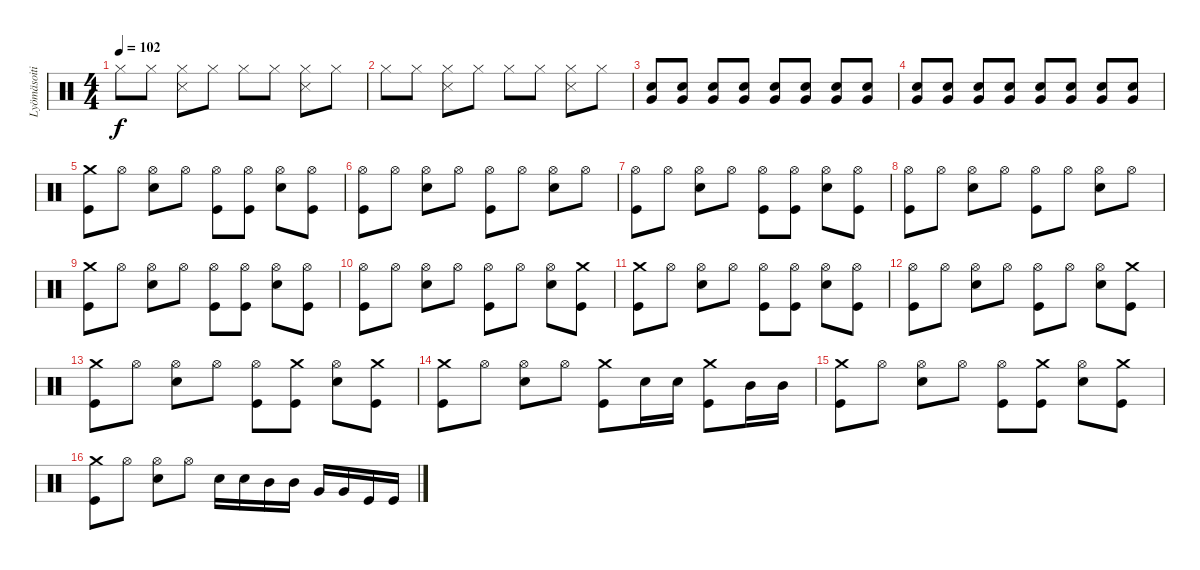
\track ("Lyömäsoitin" "Lyömäsoiti") {instrument percussion}
\staff {score}
\articulation defaults
\ts (4 4)
\tempo 102
\clef neutral
\ks c "Hi-Hat (closed)".8{dy f} "Hi-Hat (closed)".8
("Hi-Hat (closed)" "Snare (side stick) 3").8 "Hi-Hat (closed)".8 "Hi-Hat (closed)".8 "Hi-Hat (closed)".8 ("Hi-Hat (closed)" "Snare (side stick) 3").8 "Hi-Hat (closed)".8 |
"Hi-Hat (closed)".8 "Hi-Hat (closed)".8 ("Hi-Hat (closed)" "Snare (side stick) 3").8 "Hi-Hat (closed)".8 "Hi-Hat (closed)".8 "Hi-Hat (closed)".8 ("Hi-Hat (closed)" "Snare (side stick) 3").8 "Hi-Hat (closed)".8 |
("Very Low Tom (hit)" "Snare (hit) 2").8 ("Very Low Tom (hit)" "Snare (hit) 2").8 ("Very Low Tom (hit)" "Snare (hit) 2").8 ("Very Low Tom (hit)" "Snare (hit) 2").8 ("Very Low Tom (hit)" "Snare (hit) 2").8 ("Very Low Tom (hit)" "Snare (hit) 2").8 ("Very Low Tom (hit)" "Snare (hit) 2").8 ("Very Low Tom (hit)" "Snare (hit) 2").8 |
("Very Low Tom (hit)" "Snare (hit) 2").8 ("Very Low Tom (hit)" "Snare (hit) 2").8 ("Very Low Tom (hit)" "Snare (hit) 2").8 ("Very Low Tom (hit)" "Snare (hit) 2").8 ("Very Low Tom (hit)" "Snare (hit) 2").8 ("Very Low Tom (hit)" "Snare (hit) 2").8 ("Very Low Tom (hit)" "Snare (hit) 2").8 ("Very Low Tom (hit)" "Snare (hit) 2").8 |
("Crash medium (hit)" "Kick (hit)").8 "Hi-Hat (open)".8 ("Hi-Hat (open)" "Snare (hit) 2").8 "Hi-Hat (open)".8 ("Hi-Hat (open)" "Kick (hit)").8 ("Hi-Hat (open)" "Kick (hit)").8 ("Hi-Hat (open)" "Snare (hit) 2").8 ("Hi-Hat (open)" "Kick (hit)").8 |
("Hi-Hat (open)" "Kick (hit)").8 "Hi-Hat (open)".8 ("Hi-Hat (open)" "Snare (hit) 2").8 "Hi-Hat (open)".8 ("Hi-Hat (open)" "Kick (hit)").8 "Hi-Hat (open)".8 ("Hi-Hat (open)" "Snare (hit) 2").8 "Hi-Hat (open)".8 |
("Hi-Hat (open)" "Kick (hit)").8 "Hi-Hat (open)".8 ("Hi-Hat (open)" "Snare (hit) 2").8 "Hi-Hat (open)".8 ("Hi-Hat (open)" "Kick (hit)").8 ("Hi-Hat (open)" "Kick (hit)").8 ("Hi-Hat (open)" "Snare (hit) 2").8 ("Hi-Hat (open)" "Kick (hit)").8 |
("Hi-Hat (open)" "Kick (hit)").8 "Hi-Hat (open)".8 ("Hi-Hat (open)" "Snare (hit) 2").8 "Hi-Hat (open)".8 ("Hi-Hat (open)" "Kick (hit)").8 "Hi-Hat (open)".8 ("Hi-Hat (open)" "Snare (hit) 2").8 "Hi-Hat (open)".8 |
("Crash medium (hit)" "Kick (hit)").8 "Hi-Hat (open)".8 ("Hi-Hat (open)" "Snare (hit) 2").8 "Hi-Hat (open)".8 ("Hi-Hat (open)" "Kick (hit)").8 ("Hi-Hat (open)" "Kick (hit)").8 ("Hi-Hat (open)" "Snare (hit) 2").8 ("Hi-Hat (open)" "Kick (hit)").8 |
("Hi-Hat (open)" "Kick (hit)").8 "Hi-Hat (open)".8 ("Hi-Hat (open)" "Snare (hit) 2").8 "Hi-Hat (open)".8 ("Hi-Hat (open)" "Kick (hit)").8 "Hi-Hat (open)".8 ("Hi-Hat (open)" "Snare (hit) 2").8 ("Crash medium (hit)" "Kick (hit)").8 |
("Crash medium (hit)" "Kick (hit)").8 "Hi-Hat (open)".8 ("Hi-Hat (open)" "Snare (hit) 2").8 "Hi-Hat (open)".8 ("Hi-Hat (open)" "Kick (hit)").8 ("Hi-Hat (open)" "Kick (hit)").8 ("Hi-Hat (open)" "Snare (hit) 2").8 ("Hi-Hat (open)" "Kick (hit)").8 |
("Hi-Hat (open)" "Kick (hit)").8 "Hi-Hat (open)".8 ("Hi-Hat (open)" "Snare (hit) 2").8 "Hi-Hat (open)".8 ("Hi-Hat (open)" "Kick (hit)").8 "Hi-Hat (open)".8 ("Hi-Hat (open)" "Snare (hit) 2").8 ("Crash medium (hit)" "Kick (hit)").8 |
("Crash medium (hit)" "Kick (hit)").8 "Hi-Hat (open)".8 ("Hi-Hat (open)" "Snare (hit) 2").8 "Hi-Hat (open)".8 ("Hi-Hat (open)" "Kick (hit)").8 ("Crash medium (hit)" "Kick (hit)").8 ("Hi-Hat (open)" "Snare (hit) 2").8 ("Crash medium (hit)" "Kick (hit)").8 |
("Crash medium (hit)" "Kick (hit)").8 "Hi-Hat (open)".8 ("Hi-Hat (open)" "Snare (hit) 2").8 "Hi-Hat (open)".8 ("Crash medium (hit)" "Kick (hit)").8 "Snare (hit) 2".16 "Snare (hit) 2".16 ("Crash medium (hit)" "Kick (hit)").8 "Mid Tom (hit)".16 "Mid Tom (hit)".16 |
("Crash medium (hit)" "Kick (hit)").8 "Hi-Hat (open)".8 ("Hi-Hat (open)" "Snare (hit) 2").8 "Hi-Hat (open)".8 ("Hi-Hat (open)" "Kick (hit)").8 ("Crash medium (hit)" "Kick (hit)").8 ("Hi-Hat (open)" "Snare (hit) 2").8 ("Crash medium (hit)" "Kick (hit)").8 |
("Crash medium (hit)" "Kick (hit)").8 "Hi-Hat (open)".8 ("Hi-Hat (open)" "Snare (hit) 2").8 "Hi-Hat (open)".8 "Snare (hit) 2".16 "Snare (hit) 2".16 "Mid Tom (hit)".16 "Mid Tom (hit)".16 "Very Low Tom (hit)".16 "Very Low Tom (hit)".16 "Kick (hit)".16 "Kick (hit)".16
